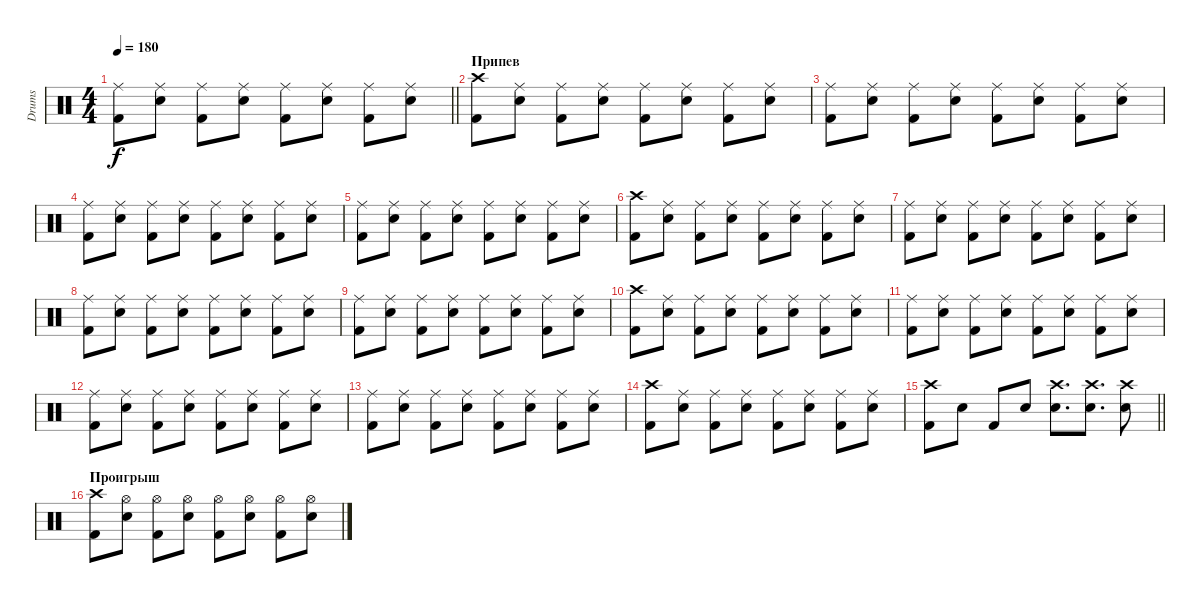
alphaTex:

\track ("Drums" "Drums") {instrument percussion}
\staff {score}
\articulation defaults
\ts (4 4)
\tempo 180
\clef neutral
\barLineRight lightlight
\ks c
("Ride (middle)" "Kick (hit) 2").8{dy f} ("Ride (middle)" "Snare (hit) 2").8 ("Ride (middle)" "Kick (hit) 2").8 ("Ride (middle)" "Snare (hit) 2").8 ("Ride (middle)" "Kick (hit) 2").8 ("Ride (middle)" "Snare (hit) 2").8 ("Ride (middle)" "Kick (hit) 2").8 ("Ride (middle)" "Snare (hit) 2").8 |
\section ("" "Припев")
("Crash high (hit)" "Kick (hit) 2").8 ("Ride (middle)" "Snare (hit) 2").8 ("Ride (middle)" "Kick (hit) 2").8 ("Ride (middle)" "Snare (hit) 2").8 ("Ride (middle)" "Kick (hit) 2").8 ("Ride (middle)" "Snare (hit) 2").8 ("Ride (middle)" "Kick (hit) 2").8 ("Ride (middle)" "Snare (hit) 2").8 |
("Ride (middle)" "Kick (hit) 2").8 ("Ride (middle)" "Snare (hit) 2").8 ("Ride (middle)" "Kick (hit) 2").8 ("Ride (middle)" "Snare (hit) 2").8 ("Ride (middle)" "Kick (hit) 2").8 ("Ride (middle)" "Snare (hit) 2").8 ("Ride (middle)" "Kick (hit) 2").8 ("Ride (middle)" "Snare (hit) 2").8 |
("Ride (middle)" "Kick (hit) 2").8 ("Ride (middle)" "Snare (hit) 2").8 ("Ride (middle)" "Kick (hit) 2").8 ("Ride (middle)" "Snare (hit) 2").8 ("Ride (middle)" "Kick (hit) 2").8 ("Ride (middle)" "Snare (hit) 2").8 ("Ride (middle)" "Kick (hit) 2").8 ("Ride (middle)" "Snare (hit) 2").8 |
("Ride (middle)" "Kick (hit) 2").8 ("Ride (middle)" "Snare (hit) 2").8 ("Ride (middle)" "Kick (hit) 2").8 ("Ride (middle)" "Snare (hit) 2").8 ("Ride (middle)" "Kick (hit) 2").8 ("Ride (middle)" "Snare (hit) 2").8 ("Ride (middle)" "Kick (hit) 2").8 ("Ride (middle)" "Snare (hit) 2").8 |
("Crash high (hit)" "Kick (hit) 2").8 ("Ride (middle)" "Snare (hit) 2").8 ("Ride (middle)" "Kick (hit) 2").8 ("Ride (middle)" "Snare (hit) 2").8 ("Ride (middle)" "Kick (hit) 2").8 ("Ride (middle)" "Snare (hit) 2").8 ("Ride (middle)" "Kick (hit) 2").8 ("Ride (middle)" "Snare (hit) 2").8 |
("Ride (middle)" "Kick (hit) 2").8 ("Ride (middle)" "Snare (hit) 2").8 ("Ride (middle)" "Kick (hit) 2").8 ("Ride (middle)" "Snare (hit) 2").8 ("Ride (middle)" "Kick (hit) 2").8 ("Ride (middle)" "Snare (hit) 2").8 ("Ride (middle)" "Kick (hit) 2").8 ("Ride (middle)" "Snare (hit) 2").8 |
("Ride (middle)" "Kick (hit) 2").8 ("Ride (middle)" "Snare (hit) 2").8 ("Ride (middle)" "Kick (hit) 2").8 ("Ride (middle)" "Snare (hit) 2").8 ("Ride (middle)" "Kick (hit) 2").8 ("Ride (middle)" "Snare (hit) 2").8 ("Ride (middle)" "Kick (hit) 2").8 ("Ride (middle)" "Snare (hit) 2").8 |
("Ride (middle)" "Kick (hit) 2").8 ("Ride (middle)" "Snare (hit) 2").8 ("Ride (middle)" "Kick (hit) 2").8 ("Ride (middle)" "Snare (hit) 2").8 ("Ride (middle)" "Kick (hit) 2").8 ("Ride (middle)" "Snare (hit) 2").8 ("Ride (middle)" "Kick (hit) 2").8 ("Ride (middle)" "Snare (hit) 2").8 |
("Crash high (hit)" "Kick (hit) 2").8 ("Ride (middle)" "Snare (hit) 2").8 ("Ride (middle)" "Kick (hit) 2").8 ("Ride (middle)" "Snare (hit) 2").8 ("Ride (middle)" "Kick (hit) 2").8 ("Ride (middle)" "Snare (hit) 2").8 ("Ride (middle)" "Kick (hit) 2").8 ("Ride (middle)" "Snare (hit) 2").8 |
("Ride (middle)" "Kick (hit) 2").8 ("Ride (middle)" "Snare (hit) 2").8 ("Ride (middle)" "Kick (hit) 2").8 ("Ride (middle)" "Snare (hit) 2").8 ("Ride (middle)" "Kick (hit) 2").8 ("Ride (middle)" "Snare (hit) 2").8 ("Ride (middle)" "Kick (hit) 2").8 ("Ride (middle)" "Snare (hit) 2").8 |
("Ride (middle)" "Kick (hit) 2").8 ("Ride (middle)" "Snare (hit) 2").8 ("Ride (middle)" "Kick (hit) 2").8 ("Ride (middle)" "Snare (hit) 2").8 ("Ride (middle)" "Kick (hit) 2").8 ("Ride (middle)" "Snare (hit) 2").8 ("Ride (middle)" "Kick (hit) 2").8 ("Ride (middle)" "Snare (hit) 2").8 |
("Ride (middle)" "Kick (hit) 2").8 ("Ride (middle)" "Snare (hit) 2").8 ("Ride (middle)" "Kick (hit) 2").8 ("Ride (middle)" "Snare (hit) 2").8 ("Ride (middle)" "Kick (hit) 2").8 ("Ride (middle)" "Snare (hit) 2").8 ("Ride (middle)" "Kick (hit) 2").8 ("Ride (middle)" "Snare (hit) 2").8 |
("Crash high (hit)" "Kick (hit) 2").8 ("Ride (middle)" "Snare (hit) 2").8 ("Ride (middle)" "Kick (hit) 2").8 ("Ride (middle)" "Snare (hit) 2").8 ("Ride (middle)" "Kick (hit) 2").8 ("Ride (middle)" "Snare (hit) 2").8 ("Ride (middle)" "Kick (hit) 2").8 ("Ride (middle)" "Snare (hit) 2").8 |
\barLineRight lightlight
("Crash high (hit)" "Kick (hit) 2").8 "Snare (hit) 2".8 "Kick (hit) 2".8 "Snare (hit) 2".8 ("Crash high (hit)" "Snare (hit) 2").8{d} ("Crash high (hit)" "Snare (hit) 2").8{d} ("Crash high (hit)" "Snare (hit) 2").8 |
\section ("" "Проигрыш")
("Crash high (hit)" "Kick (hit) 2").8 ("Hi-Hat (open)" "Snare (hit) 2").8 ("Hi-Hat (open)" "Kick (hit) 2").8 ("Hi-Hat (open)" "Snare (hit) 2").8 ("Hi-Hat (open)" "Kick (hit) 2").8 ("Hi-Hat (open)" "Snare (hit) 2").8 ("Hi-Hat (open)" "Kick (hit) 2").8 ("Hi-Hat (open)" "Snare (hit) 2").8
